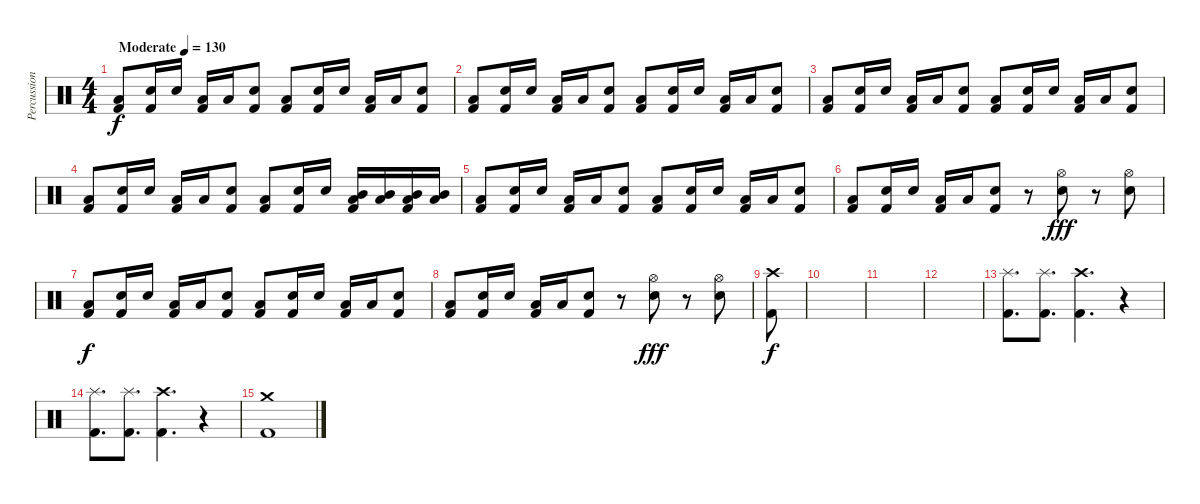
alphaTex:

\track ("Percussion" "Percussion") {instrument percussion}
\staff {score}
\articulation defaults
\ts (4 4)
\tempo (130 "Moderate")
\clef neutral
\ks c
("Low Tom (hit)" "Kick (hit) 2").8{dy f} ("Snare (hit) 2" "Kick (hit) 2").16 "Snare (hit) 2".16 ("Low Tom (hit)" "Kick (hit) 2").16 "Low Tom (hit)".16 ("Snare (hit) 2" "Kick (hit) 2").8 ("Low Tom (hit)" "Kick (hit) 2").8 ("Snare (hit) 2" "Kick (hit) 2").16 "Snare (hit) 2".16 ("Low Tom (hit)" "Kick (hit) 2").16 "Low Tom (hit)".16 ("Snare (hit) 2" "Kick (hit) 2").8 |
("Low Tom (hit)" "Kick (hit) 2").8 ("Snare (hit) 2" "Kick (hit) 2").16 "Snare (hit) 2".16 ("Low Tom (hit)" "Kick (hit) 2").16 "Low Tom (hit)".16 ("Snare (hit) 2" "Kick (hit) 2").8 ("Low Tom (hit)" "Kick (hit) 2").8 ("Snare (hit) 2" "Kick (hit) 2").16 "Snare (hit) 2".16 ("Low Tom (hit)" "Kick (hit) 2").16 "Low Tom (hit)".16 ("Snare (hit) 2" "Kick (hit) 2").8 |
("Low Tom (hit)" "Kick (hit) 2").8 ("Snare (hit) 2" "Kick (hit) 2").16 "Snare (hit) 2".16 ("Low Tom (hit)" "Kick (hit) 2").16 "Low Tom (hit)".16 ("Snare (hit) 2" "Kick (hit) 2").8 ("Low Tom (hit)" "Kick (hit) 2").8 ("Snare (hit) 2" "Kick (hit) 2").16 "Snare (hit) 2".16 ("Low Tom (hit)" "Kick (hit) 2").16 "Low Tom (hit)".16 ("Snare (hit) 2" "Kick (hit) 2").8 |
("Low Tom (hit)" "Kick (hit) 2").8 ("Snare (hit) 2" "Kick (hit) 2").16 "Snare (hit) 2".16 ("Low Tom (hit)" "Kick (hit) 2").16 "Low Tom (hit)".16 ("Snare (hit) 2" "Kick (hit) 2").8 ("Low Tom (hit)" "Kick (hit) 2").8 ("Snare (hit) 2" "Kick (hit) 2").16 "Snare (hit) 2".16 ("Low Tom (hit)" "Mid Tom (hit)" "Kick (hit) 2").16 ("Low Tom (hit)" "Mid Tom (hit)").16 ("Low Tom (hit)" "Mid Tom (hit)" "Kick (hit) 2").16 ("Low Tom (hit)" "Mid Tom (hit)").16 |
("Low Tom (hit)" "Kick (hit) 2").8 ("Snare (hit) 2" "Kick (hit) 2").16 "Snare (hit) 2".16 ("Low Tom (hit)" "Kick (hit) 2").16 "Low Tom (hit)".16 ("Snare (hit) 2" "Kick (hit) 2").8 ("Low Tom (hit)" "Kick (hit) 2").8 ("Snare (hit) 2" "Kick (hit) 2").16 "Snare (hit) 2".16 ("Low Tom (hit)" "Kick (hit) 2").16 "Low Tom (hit)".16 ("Snare (hit) 2" "Kick (hit) 2").8 |
("Low Tom (hit)" "Kick (hit) 2").8 ("Snare (hit) 2" "Kick (hit) 2").16 "Snare (hit) 2".16 ("Low Tom (hit)" "Kick (hit) 2").16 "Low Tom (hit)".16 ("Snare (hit) 2" "Kick (hit) 2").8 r.8 ("Hi-Hat (open)" "Snare (hit) 2").8{dy fff} r.8 ("Hi-Hat (open)" "Snare (hit) 2").8 |
("Low Tom (hit)" "Kick (hit) 2").8{dy f} ("Snare (hit) 2" "Kick (hit) 2").16 "Snare (hit) 2".16 ("Low Tom (hit)" "Kick (hit) 2").16 "Low Tom (hit)".16 ("Snare (hit) 2" "Kick (hit) 2").8 ("Low Tom (hit)" "Kick (hit) 2").8 ("Snare (hit) 2" "Kick (hit) 2").16 "Snare (hit) 2".16 ("Low Tom (hit)" "Kick (hit) 2").16 "Low Tom (hit)".16 ("Snare (hit) 2" "Kick (hit) 2").8 |
("Low Tom (hit)" "Kick (hit) 2").8 ("Snare (hit) 2" "Kick (hit) 2").16 "Snare (hit) 2".16 ("Low Tom (hit)" "Kick (hit) 2").16 "Low Tom (hit)".16 ("Snare (hit) 2" "Kick (hit) 2").8 r.8 ("Hi-Hat (open)" "Snare (hit) 2").8{dy fff} r.8 ("Hi-Hat (open)" "Snare (hit) 2").8 |
("Crash high (hit)" "Kick (hit) 2").8{dy f} |
|
|
|
("Splash (hit)" "Kick (hit) 2").8{d} ("Splash (hit)" "Kick (hit) 2").8{d} ("Crash high (hit)" "Kick (hit) 2").4{d} r.4 |
("Splash (hit)" "Kick (hit) 2").8{d} ("Splash (hit)" "Kick (hit) 2").8{d} ("Crash high (hit)" "Kick (hit) 2").4{d} r.4 |
("Crash medium (hit)" "Kick (hit) 2").1
